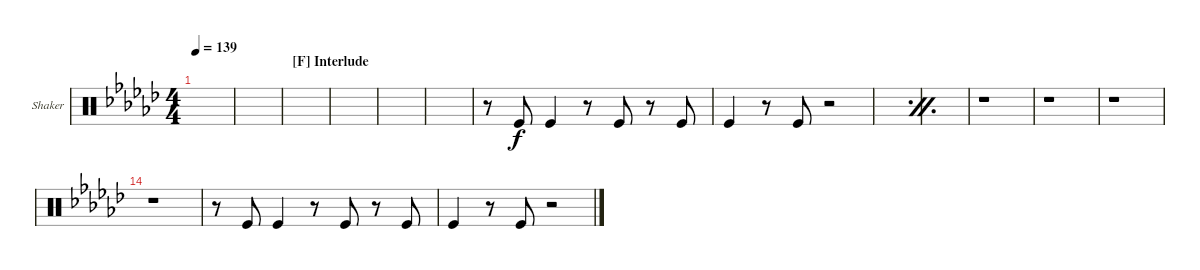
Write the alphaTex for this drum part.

\bracketExtendMode groupsimilarinstruments
\firstSystemTrackNameOrientation horizontal
\otherSystemsTrackNameOrientation horizontal
\defaultBarNumberDisplay FirstOfSystem
\track ("Shaker" "Shaker") {instrument percussion}
\staff {score}
\articulation defaults
\ts (4 4)
\tempo 139
\clef neutral
\ks gb
|
|
\section ("F" "Interlude")
|
|
|
|
r.8 "Kick (hit)".8 "Kick (hit)".4 r.8 "Kick (hit)".8 r.8 "Kick (hit)".8 |
"Kick (hit)".4 r.8 "Kick (hit)".8 r.2 |
\simile firstofdouble
|
\simile secondofdouble
|
\simile none
r.1 |
r.1 |
r.1 |
r.1 |
r.8 "Kick (hit)".8 "Kick (hit)".4 r.8 "Kick (hit)".8 r.8 "Kick (hit)".8 |
"Kick (hit)".4 r.8 "Kick (hit)".8 r.2
